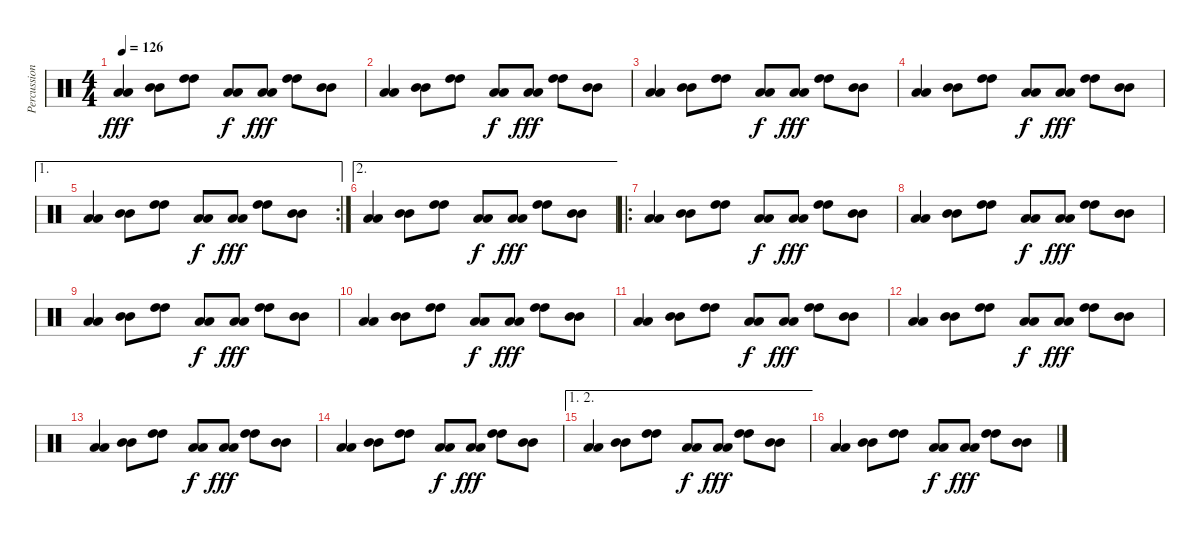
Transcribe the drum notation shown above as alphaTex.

\track ("Percussions 2" "Percussion") {instrument percussion}
\staff {score}
\articulation defaults
\ts (4 4)
\tempo 126
\clef neutral
\ks c
("Low Tom (hit)" "Low Tom (hit)").4{dy fff} ("Mid Tom (hit)" "Mid Tom (hit)").8 ("High Tom (hit)" "High Tom (hit)").8 ("Low Tom (hit)" "Low Tom (hit)").8{dy f} ("Low Tom (hit)" "Low Tom (hit)").8{dy fff} ("High Tom (hit)" "High Tom (hit)").8 ("Mid Tom (hit)" "Mid Tom (hit)").8 |
("Low Tom (hit)" "Low Tom (hit)").4 ("Mid Tom (hit)" "Mid Tom (hit)").8 ("High Tom (hit)" "High Tom (hit)").8 ("Low Tom (hit)" "Low Tom (hit)").8{dy f} ("Low Tom (hit)" "Low Tom (hit)").8{dy fff} ("High Tom (hit)" "High Tom (hit)").8 ("Mid Tom (hit)" "Mid Tom (hit)").8 |
("Low Tom (hit)" "Low Tom (hit)").4 ("Mid Tom (hit)" "Mid Tom (hit)").8 ("High Tom (hit)" "High Tom (hit)").8 ("Low Tom (hit)" "Low Tom (hit)").8{dy f} ("Low Tom (hit)" "Low Tom (hit)").8{dy fff} ("High Tom (hit)" "High Tom (hit)").8 ("Mid Tom (hit)" "Mid Tom (hit)").8 |
("Low Tom (hit)" "Low Tom (hit)").4 ("Mid Tom (hit)" "Mid Tom (hit)").8 ("High Tom (hit)" "High Tom (hit)").8 ("Low Tom (hit)" "Low Tom (hit)").8{dy f} ("Low Tom (hit)" "Low Tom (hit)").8{dy fff} ("High Tom (hit)" "High Tom (hit)").8 ("Mid Tom (hit)" "Mid Tom (hit)").8 |
\ae 1
\rc 2
("Low Tom (hit)" "Low Tom (hit)").4 ("Mid Tom (hit)" "Mid Tom (hit)").8 ("High Tom (hit)" "High Tom (hit)").8 ("Low Tom (hit)" "Low Tom (hit)").8{dy f} ("Low Tom (hit)" "Low Tom (hit)").8{dy fff} ("High Tom (hit)" "High Tom (hit)").8 ("Mid Tom (hit)" "Mid Tom (hit)").8 |
\ae 2
("Low Tom (hit)" "Low Tom (hit)").4 ("Mid Tom (hit)" "Mid Tom (hit)").8 ("High Tom (hit)" "High Tom (hit)").8 ("Low Tom (hit)" "Low Tom (hit)").8{dy f} ("Low Tom (hit)" "Low Tom (hit)").8{dy fff} ("High Tom (hit)" "High Tom (hit)").8 ("Mid Tom (hit)" "Mid Tom (hit)").8 |
\ro
("Low Tom (hit)" "Low Tom (hit)").4 ("Mid Tom (hit)" "Mid Tom (hit)").8 ("High Tom (hit)" "High Tom (hit)").8 ("Low Tom (hit)" "Low Tom (hit)").8{dy f} ("Low Tom (hit)" "Low Tom (hit)").8{dy fff} ("High Tom (hit)" "High Tom (hit)").8 ("Mid Tom (hit)" "Mid Tom (hit)").8 |
("Low Tom (hit)" "Low Tom (hit)").4 ("Mid Tom (hit)" "Mid Tom (hit)").8 ("High Tom (hit)" "High Tom (hit)").8 ("Low Tom (hit)" "Low Tom (hit)").8{dy f} ("Low Tom (hit)" "Low Tom (hit)").8{dy fff} ("High Tom (hit)" "High Tom (hit)").8 ("Mid Tom (hit)" "Mid Tom (hit)").8 |
("Low Tom (hit)" "Low Tom (hit)").4 ("Mid Tom (hit)" "Mid Tom (hit)").8 ("High Tom (hit)" "High Tom (hit)").8 ("Low Tom (hit)" "Low Tom (hit)").8{dy f} ("Low Tom (hit)" "Low Tom (hit)").8{dy fff} ("High Tom (hit)" "High Tom (hit)").8 ("Mid Tom (hit)" "Mid Tom (hit)").8 |
("Low Tom (hit)" "Low Tom (hit)").4 ("Mid Tom (hit)" "Mid Tom (hit)").8 ("High Tom (hit)" "High Tom (hit)").8 ("Low Tom (hit)" "Low Tom (hit)").8{dy f} ("Low Tom (hit)" "Low Tom (hit)").8{dy fff} ("High Tom (hit)" "High Tom (hit)").8 ("Mid Tom (hit)" "Mid Tom (hit)").8 |
("Low Tom (hit)" "Low Tom (hit)").4 ("Mid Tom (hit)" "Mid Tom (hit)").8 ("High Tom (hit)" "High Tom (hit)").8 ("Low Tom (hit)" "Low Tom (hit)").8{dy f} ("Low Tom (hit)" "Low Tom (hit)").8{dy fff} ("High Tom (hit)" "High Tom (hit)").8 ("Mid Tom (hit)" "Mid Tom (hit)").8 |
("Low Tom (hit)" "Low Tom (hit)").4 ("Mid Tom (hit)" "Mid Tom (hit)").8 ("High Tom (hit)" "High Tom (hit)").8 ("Low Tom (hit)" "Low Tom (hit)").8{dy f} ("Low Tom (hit)" "Low Tom (hit)").8{dy fff} ("High Tom (hit)" "High Tom (hit)").8 ("Mid Tom (hit)" "Mid Tom (hit)").8 |
("Low Tom (hit)" "Low Tom (hit)").4 ("Mid Tom (hit)" "Mid Tom (hit)").8 ("High Tom (hit)" "High Tom (hit)").8 ("Low Tom (hit)" "Low Tom (hit)").8{dy f} ("Low Tom (hit)" "Low Tom (hit)").8{dy fff} ("High Tom (hit)" "High Tom (hit)").8 ("Mid Tom (hit)" "Mid Tom (hit)").8 |
("Low Tom (hit)" "Low Tom (hit)").4 ("Mid Tom (hit)" "Mid Tom (hit)").8 ("High Tom (hit)" "High Tom (hit)").8 ("Low Tom (hit)" "Low Tom (hit)").8{dy f} ("Low Tom (hit)" "Low Tom (hit)").8{dy fff} ("High Tom (hit)" "High Tom (hit)").8 ("Mid Tom (hit)" "Mid Tom (hit)").8 |
\ae (1 2)
("Low Tom (hit)" "Low Tom (hit)").4 ("Mid Tom (hit)" "Mid Tom (hit)").8 ("High Tom (hit)" "High Tom (hit)").8 ("Low Tom (hit)" "Low Tom (hit)").8{dy f} ("Low Tom (hit)" "Low Tom (hit)").8{dy fff} ("High Tom (hit)" "High Tom (hit)").8 ("Mid Tom (hit)" "Mid Tom (hit)").8 |
("Low Tom (hit)" "Low Tom (hit)").4 ("Mid Tom (hit)" "Mid Tom (hit)").8 ("High Tom (hit)" "High Tom (hit)").8 ("Low Tom (hit)" "Low Tom (hit)").8{dy f} ("Low Tom (hit)" "Low Tom (hit)").8{dy fff} ("High Tom (hit)" "High Tom (hit)").8 ("Mid Tom (hit)" "Mid Tom (hit)").8
